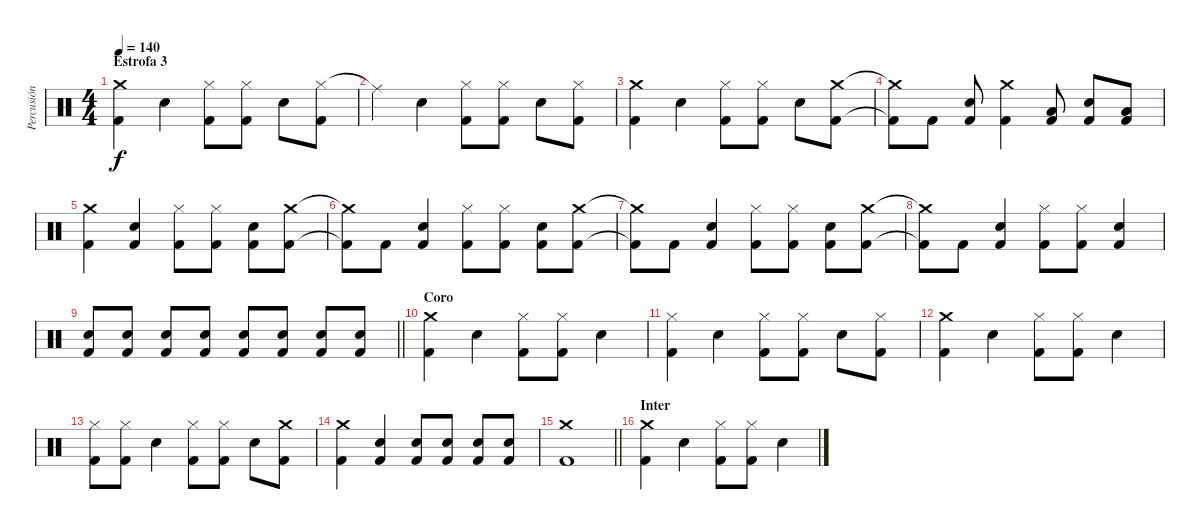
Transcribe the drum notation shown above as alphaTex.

\track ("Percusión" "Percusión") {instrument percussion}
\staff {score}
\articulation defaults
\ts (4 4)
\section ("" "Estrofa 3")
\tempo 140
\clef neutral
\ks c
("Crash medium (hit)" "Kick (hit) 2").4{dy f} "Snare (hit) 2".4 ("Hi-Hat (closed)" "Kick (hit) 2").8 ("Hi-Hat (closed)" "Kick (hit) 2").8 "Snare (hit) 2".8 ("Hi-Hat (closed)" "Kick (hit) 2").8 |
"Ride (middle)"{t}.4 "Snare (hit) 2".4 ("Hi-Hat (closed)" "Kick (hit) 2").8 ("Hi-Hat (closed)" "Kick (hit) 2").8 "Snare (hit) 2".8 ("Hi-Hat (closed)" "Kick (hit) 2").8 |
("Crash medium (hit)" "Kick (hit) 2").4 "Snare (hit) 2".4 ("Hi-Hat (closed)" "Kick (hit) 2").8 ("Hi-Hat (closed)" "Kick (hit) 2").8 "Snare (hit) 2".8 ("Crash medium (hit)" "Kick (hit) 2").8 |
("Crash medium (hit)"{t} "Kick (hit) 2"{t}).8 "Kick (hit) 2".8 ("Snare (hit) 2" "Kick (hit) 2").8 ("Crash medium (hit)" "Kick (hit) 2").4 ("Low Floor Tom (hit)" "Kick (hit) 2").8 ("Snare (hit) 2" "Kick (hit) 2").8 ("Low Floor Tom (hit)" "Kick (hit) 2").8 |
("Crash medium (hit)" "Kick (hit) 2").4 ("Snare (hit) 2" "Kick (hit) 2").4 ("Hi-Hat (closed)" "Kick (hit) 2").8 ("Hi-Hat (closed)" "Kick (hit) 2").8 ("Snare (hit) 2" "Kick (hit) 2").8 ("Crash medium (hit)" "Kick (hit) 2").8 |
("Crash medium (hit)"{t} "Kick (hit) 2"{t}).8 "Kick (hit) 2".8 ("Snare (hit) 2" "Kick (hit) 2").4 ("Hi-Hat (closed)" "Kick (hit) 2").8 ("Hi-Hat (closed)" "Kick (hit) 2").8 ("Snare (hit) 2" "Kick (hit) 2").8 ("Crash medium (hit)" "Kick (hit) 2").8 |
("Crash medium (hit)"{t} "Kick (hit) 2"{t}).8 "Kick (hit) 2".8 ("Snare (hit) 2" "Kick (hit) 2").4 ("Hi-Hat (closed)" "Kick (hit) 2").8 ("Hi-Hat (closed)" "Kick (hit) 2").8 ("Snare (hit) 2" "Kick (hit) 2").8 ("Crash medium (hit)" "Kick (hit) 2").8 |
("Crash medium (hit)"{t} "Kick (hit) 2"{t}).8 "Kick (hit) 2".8 ("Snare (hit) 2" "Kick (hit) 2").4 ("Hi-Hat (closed)" "Kick (hit) 2").8 ("Hi-Hat (closed)" "Kick (hit) 2").8 ("Snare (hit) 2" "Kick (hit) 2").4 |
\barLineRight lightlight
("Snare (hit) 2" "Kick (hit) 2").8 ("Snare (hit) 2" "Kick (hit) 2").8 ("Snare (hit) 2" "Kick (hit) 2").8 ("Snare (hit) 2" "Kick (hit) 2").8 ("Snare (hit) 2" "Kick (hit) 2").8 ("Snare (hit) 2" "Kick (hit) 2").8 ("Snare (hit) 2" "Kick (hit) 2").8 ("Snare (hit) 2" "Kick (hit) 2").8 |
\section ("" "Coro")
("Crash medium (hit)" "Kick (hit) 2").4 "Snare (hit) 2".4 ("Hi-Hat (closed)" "Kick (hit) 2").8 ("Hi-Hat (closed)" "Kick (hit) 2").8 "Snare (hit) 2".4 |
("Hi-Hat (closed)" "Kick (hit) 2").4 "Snare (hit) 2".4 ("Hi-Hat (closed)" "Kick (hit) 2").8 ("Hi-Hat (closed)" "Kick (hit) 2").8 "Snare (hit) 2".8 ("Hi-Hat (closed)" "Kick (hit) 2").8 |
("Crash medium (hit)" "Kick (hit) 2").4 "Snare (hit) 2".4 ("Hi-Hat (closed)" "Kick (hit) 2").8 ("Hi-Hat (closed)" "Kick (hit) 2").8 "Snare (hit) 2".4 |
("Hi-Hat (closed)" "Kick (hit) 2").8 ("Hi-Hat (closed)" "Kick (hit) 2").8 "Snare (hit) 2".4 ("Hi-Hat (closed)" "Kick (hit) 2").8 ("Hi-Hat (closed)" "Kick (hit) 2").8 "Snare (hit) 2".8 ("Crash medium (hit)" "Kick (hit) 2").8 |
("Crash medium (hit)" "Kick (hit) 2").4 ("Snare (hit) 2" "Kick (hit) 2").4 ("Snare (hit) 2" "Kick (hit) 2").8 ("Snare (hit) 2" "Kick (hit) 2").8 ("Snare (hit) 2" "Kick (hit) 2").8 ("Snare (hit) 2" "Kick (hit) 2").8 |
\barLineRight lightlight
("Crash medium (hit)" "Kick (hit) 2").1 |
\section ("" "Inter")
("Crash medium (hit)" "Kick (hit) 2").4 "Snare (hit) 2".4 ("Hi-Hat (closed)" "Kick (hit) 2").8 ("Hi-Hat (closed)" "Kick (hit) 2").8 "Snare (hit) 2".4
